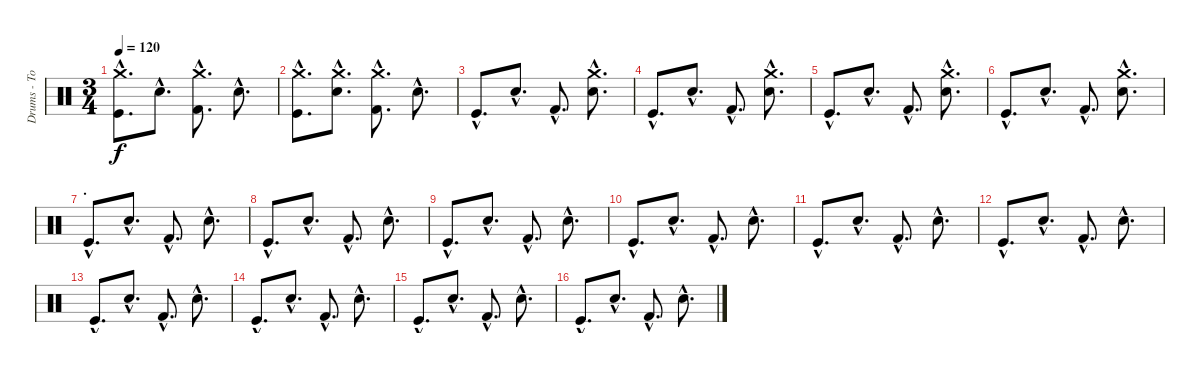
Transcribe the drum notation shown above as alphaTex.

\track ("Drums - Tom" "Drums - To") {instrument percussion}
\staff {score}
\articulation defaults
\ts (3 4)
\tempo 120
\clef neutral
\ks c
("Kick (hit)"{hac} "Crash medium (hit)"{hac}).8{d dy f} "Snare (hit) 2"{hac}.8{d} ("Kick (hit) 2"{hac} "Crash medium (hit)"{hac}).8{d} "Snare (hit) 2"{hac}.8{d} |
("Kick (hit)"{hac} "Crash medium (hit)"{hac}).8{d} ("Snare (hit) 2"{hac} "Crash medium (hit)"{hac}).8{d} ("Kick (hit) 2"{hac} "Crash medium (hit)"{hac}).8{d} "Snare (hit) 2"{hac}.8{d} |
"Kick (hit)"{hac}.8{d} "Snare (hit) 2"{hac}.8{d} "Kick (hit) 2"{hac}.8{d} ("Snare (hit) 2"{hac} "Crash medium (hit)"{hac}).8{d} |
"Kick (hit)"{hac}.8{d} "Snare (hit) 2"{hac}.8{d} "Kick (hit) 2"{hac}.8{d} ("Snare (hit) 2"{hac} "Crash medium (hit)"{hac}).8{d} |
"Kick (hit)"{hac}.8{d} "Snare (hit) 2"{hac}.8{d} "Kick (hit) 2"{hac}.8{d} ("Snare (hit) 2"{hac} "Crash medium (hit)"{hac}).8{d} |
"Kick (hit)"{hac}.8{d} "Snare (hit) 2"{hac}.8{d} "Kick (hit) 2"{hac}.8{d} ("Snare (hit) 2"{hac} "Crash medium (hit)"{hac}).8{d} |
\section ("" ".")
"Kick (hit)"{hac}.8{d} "Snare (hit) 2"{hac}.8{d} "Kick (hit) 2"{hac}.8{d} "Snare (hit) 2"{hac}.8{d} |
"Kick (hit)"{hac}.8{d} "Snare (hit) 2"{hac}.8{d} "Kick (hit) 2"{hac}.8{d} "Snare (hit) 2"{hac}.8{d} |
"Kick (hit)"{hac}.8{d} "Snare (hit) 2"{hac}.8{d} "Kick (hit) 2"{hac}.8{d} "Snare (hit) 2"{hac}.8{d} |
"Kick (hit)"{hac}.8{d} "Snare (hit) 2"{hac}.8{d} "Kick (hit) 2"{hac}.8{d} "Snare (hit) 2"{hac}.8{d} |
"Kick (hit)"{hac}.8{d} "Snare (hit) 2"{hac}.8{d} "Kick (hit) 2"{hac}.8{d} "Snare (hit) 2"{hac}.8{d} |
"Kick (hit)"{hac}.8{d} "Snare (hit) 2"{hac}.8{d} "Kick (hit) 2"{hac}.8{d} "Snare (hit) 2"{hac}.8{d} |
"Kick (hit)"{hac}.8{d} "Snare (hit) 2"{hac}.8{d} "Kick (hit) 2"{hac}.8{d} "Snare (hit) 2"{hac}.8{d} |
"Kick (hit)"{hac}.8{d} "Snare (hit) 2"{hac}.8{d} "Kick (hit) 2"{hac}.8{d} "Snare (hit) 2"{hac}.8{d} |
"Kick (hit)"{hac}.8{d} "Snare (hit) 2"{hac}.8{d} "Kick (hit) 2"{hac}.8{d} "Snare (hit) 2"{hac}.8{d} |
"Kick (hit)"{hac}.8{d} "Snare (hit) 2"{hac}.8{d} "Kick (hit) 2"{hac}.8{d} "Snare (hit) 2"{hac}.8{d}
